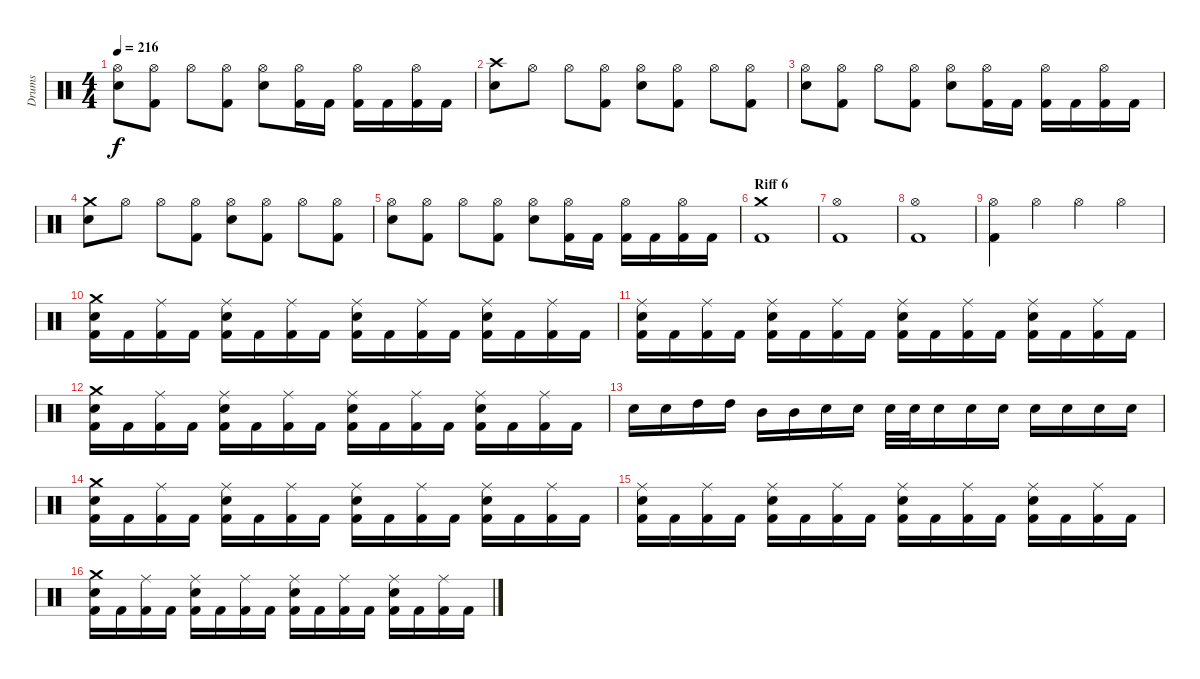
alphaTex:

\track ("Drums" "Drums") {instrument percussion}
\staff {score}
\articulation defaults
\ts (4 4)
\tempo 216
\clef neutral
\ks c
("Hi-Hat (open)" "Electric Snare (hit)").8{dy f} ("Hi-Hat (open)" "Kick (hit) 2").8 "Hi-Hat (open)".8 ("Hi-Hat (open)" "Kick (hit) 2").8 ("Hi-Hat (open)" "Electric Snare (hit)").8 ("Hi-Hat (open)" "Kick (hit) 2").16 "Kick (hit) 2".16 ("Hi-Hat (open)" "Kick (hit) 2").16 "Kick (hit) 2".16 ("Hi-Hat (open)" "Kick (hit) 2").16 "Kick (hit) 2".16 |
("Crash high (hit)" "Electric Snare (hit)").8 "Hi-Hat (open)".8 "Hi-Hat (open)".8 ("Hi-Hat (open)" "Kick (hit) 2").8 ("Hi-Hat (open)" "Electric Snare (hit)").8 ("Hi-Hat (open)" "Kick (hit) 2").8 "Hi-Hat (open)".8 ("Hi-Hat (open)" "Kick (hit) 2").8 |
("Hi-Hat (open)" "Electric Snare (hit)").8 ("Hi-Hat (open)" "Kick (hit) 2").8 "Hi-Hat (open)".8 ("Hi-Hat (open)" "Kick (hit) 2").8 ("Hi-Hat (open)" "Electric Snare (hit)").8 ("Hi-Hat (open)" "Kick (hit) 2").16 "Kick (hit) 2".16 ("Hi-Hat (open)" "Kick (hit) 2").16 "Kick (hit) 2".16 ("Hi-Hat (open)" "Kick (hit) 2").16 "Kick (hit) 2".16 |
("Crash medium (hit)" "Electric Snare (hit)").8 "Hi-Hat (open)".8 "Hi-Hat (open)".8 ("Hi-Hat (open)" "Kick (hit) 2").8 ("Hi-Hat (open)" "Electric Snare (hit)").8 ("Hi-Hat (open)" "Kick (hit) 2").8 "Hi-Hat (open)".8 ("Hi-Hat (open)" "Kick (hit) 2").8 |
("Hi-Hat (open)" "Electric Snare (hit)").8 ("Hi-Hat (open)" "Kick (hit) 2").8 "Hi-Hat (open)".8 ("Hi-Hat (open)" "Kick (hit) 2").8 ("Hi-Hat (open)" "Electric Snare (hit)").8 ("Hi-Hat (open)" "Kick (hit) 2").16 "Kick (hit) 2".16 ("Hi-Hat (open)" "Kick (hit) 2").16 "Kick (hit) 2".16 ("Hi-Hat (open)" "Kick (hit) 2").16 "Kick (hit) 2".16 |
\section ("" "Riff 6")
("Crash medium (hit)" "Kick (hit) 2").1 |
("Hi-Hat (open)" "Kick (hit) 2").1 |
("Hi-Hat (open)" "Kick (hit) 2").1 |
("Hi-Hat (open)" "Kick (hit) 2").4 "Hi-Hat (open)".4 "Hi-Hat (open)".4 "Hi-Hat (open)".4 |
("Crash medium (hit)" "Electric Snare (hit)" "Kick (hit) 2").16 "Kick (hit) 2".16 ("Ride (middle)" "Kick (hit) 2").16 "Kick (hit) 2".16 ("Ride (middle)" "Electric Snare (hit)" "Kick (hit) 2").16 "Kick (hit) 2".16 ("Ride (middle)" "Kick (hit) 2").16 "Kick (hit) 2".16 ("Ride (middle)" "Electric Snare (hit)" "Kick (hit) 2").16 "Kick (hit) 2".16 ("Ride (middle)" "Kick (hit) 2").16 "Kick (hit) 2".16 ("Ride (middle)" "Electric Snare (hit)" "Kick (hit) 2").16 "Kick (hit) 2".16 ("Ride (middle)" "Kick (hit) 2").16 "Kick (hit) 2".16 |
("Ride (middle)" "Electric Snare (hit)" "Kick (hit) 2").16 "Kick (hit) 2".16 ("Ride (middle)" "Kick (hit) 2").16 "Kick (hit) 2".16 ("Ride (middle)" "Electric Snare (hit)" "Kick (hit) 2").16 "Kick (hit) 2".16 ("Ride (middle)" "Kick (hit) 2").16 "Kick (hit) 2".16 ("Ride (middle)" "Electric Snare (hit)" "Kick (hit) 2").16 "Kick (hit) 2".16 ("Ride (middle)" "Kick (hit) 2").16 "Kick (hit) 2".16 ("Ride (middle)" "Electric Snare (hit)" "Kick (hit) 2").16 "Kick (hit) 2".16 ("Ride (middle)" "Kick (hit) 2").16 "Kick (hit) 2".16 |
("Crash medium (hit)" "Electric Snare (hit)" "Kick (hit) 2").16 "Kick (hit) 2".16 ("Ride (middle)" "Kick (hit) 2").16 "Kick (hit) 2".16 ("Ride (middle)" "Electric Snare (hit)" "Kick (hit) 2").16 "Kick (hit) 2".16 ("Ride (middle)" "Kick (hit) 2").16 "Kick (hit) 2".16 ("Ride (middle)" "Electric Snare (hit)" "Kick (hit) 2").16 "Kick (hit) 2".16 ("Ride (middle)" "Kick (hit) 2").16 "Kick (hit) 2".16 ("Ride (middle)" "Electric Snare (hit)" "Kick (hit) 2").16 "Kick (hit) 2".16 ("Ride (middle)" "Kick (hit) 2").16 "Kick (hit) 2".16 |
"Electric Snare (hit)".16 "Electric Snare (hit)".16 "High Tom (hit)".16 "High Tom (hit)".16 "Mid Tom (hit)".16 "Mid Tom (hit)".16 "Electric Snare (hit)".16 "Electric Snare (hit)".16 "Electric Snare (hit)".32 "Electric Snare (hit)".32 "Electric Snare (hit)".16 "Electric Snare (hit)".16 "Electric Snare (hit)".16 "Electric Snare (hit)".16 "Electric Snare (hit)".16 "Electric Snare (hit)".16 "Electric Snare (hit)".16 |
("Crash medium (hit)" "Electric Snare (hit)" "Kick (hit) 2").16 "Kick (hit) 2".16 ("Ride (middle)" "Kick (hit) 2").16 "Kick (hit) 2".16 ("Ride (middle)" "Electric Snare (hit)" "Kick (hit) 2").16 "Kick (hit) 2".16 ("Ride (middle)" "Kick (hit) 2").16 "Kick (hit) 2".16 ("Ride (middle)" "Electric Snare (hit)" "Kick (hit) 2").16 "Kick (hit) 2".16 ("Ride (middle)" "Kick (hit) 2").16 "Kick (hit) 2".16 ("Ride (middle)" "Electric Snare (hit)" "Kick (hit) 2").16 "Kick (hit) 2".16 ("Ride (middle)" "Kick (hit) 2").16 "Kick (hit) 2".16 |
("Ride (middle)" "Electric Snare (hit)" "Kick (hit) 2").16 "Kick (hit) 2".16 ("Ride (middle)" "Kick (hit) 2").16 "Kick (hit) 2".16 ("Ride (middle)" "Electric Snare (hit)" "Kick (hit) 2").16 "Kick (hit) 2".16 ("Ride (middle)" "Kick (hit) 2").16 "Kick (hit) 2".16 ("Ride (middle)" "Electric Snare (hit)" "Kick (hit) 2").16 "Kick (hit) 2".16 ("Ride (middle)" "Kick (hit) 2").16 "Kick (hit) 2".16 ("Ride (middle)" "Electric Snare (hit)" "Kick (hit) 2").16 "Kick (hit) 2".16 ("Ride (middle)" "Kick (hit) 2").16 "Kick (hit) 2".16 |
("Crash medium (hit)" "Electric Snare (hit)" "Kick (hit) 2").16 "Kick (hit) 2".16 ("Ride (middle)" "Kick (hit) 2").16 "Kick (hit) 2".16 ("Ride (middle)" "Electric Snare (hit)" "Kick (hit) 2").16 "Kick (hit) 2".16 ("Ride (middle)" "Kick (hit) 2").16 "Kick (hit) 2".16 ("Ride (middle)" "Electric Snare (hit)" "Kick (hit) 2").16 "Kick (hit) 2".16 ("Ride (middle)" "Kick (hit) 2").16 "Kick (hit) 2".16 ("Ride (middle)" "Electric Snare (hit)" "Kick (hit) 2").16 "Kick (hit) 2".16 ("Ride (middle)" "Kick (hit) 2").16 "Kick (hit) 2".16
